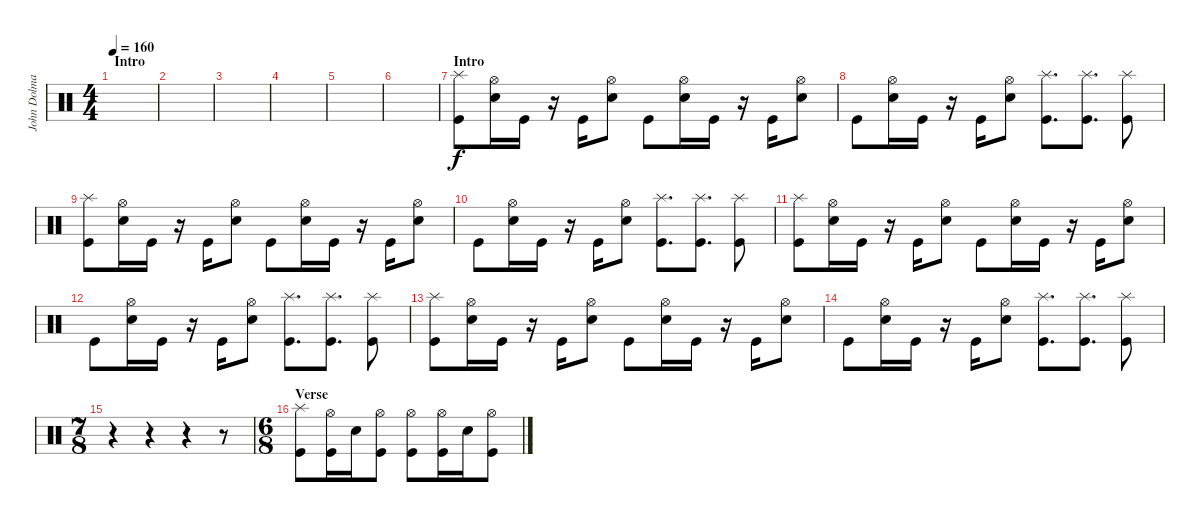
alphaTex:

\track ("John Dolmayan" "John Dolma") {instrument percussion}
\staff {score}
\articulation defaults
\ts (4 4)
\section ("" "Intro")
\tempo 160
\clef neutral
\ks c
|
|
|
|
|
|
\section ("" "Intro")
("Kick (hit)" "Splash (hit)").8 ("Hi-Hat (open)" "Snare (hit) 2").16 "Kick (hit)".16 r.16 "Kick (hit)".16 ("Hi-Hat (open)" "Snare (hit) 2").8 "Kick (hit)".8 ("Hi-Hat (open)" "Snare (hit) 2").16 "Kick (hit)".16 r.16 "Kick (hit)".16 ("Hi-Hat (open)" "Snare (hit) 2").8 |
"Kick (hit)".8 ("Hi-Hat (open)" "Snare (hit) 2").16 "Kick (hit)".16 r.16 "Kick (hit)".16 ("Hi-Hat (open)" "Snare (hit) 2").8 ("Kick (hit)" "Splash (hit)").8{d} ("Kick (hit)" "Splash (hit)").8{d} ("Kick (hit)" "Splash (hit)").8 |
("Kick (hit)" "Splash (hit)").8 ("Hi-Hat (open)" "Snare (hit) 2").16 "Kick (hit)".16 r.16 "Kick (hit)".16 ("Hi-Hat (open)" "Snare (hit) 2").8 "Kick (hit)".8 ("Hi-Hat (open)" "Snare (hit) 2").16 "Kick (hit)".16 r.16 "Kick (hit)".16 ("Hi-Hat (open)" "Snare (hit) 2").8 |
"Kick (hit)".8 ("Hi-Hat (open)" "Snare (hit) 2").16 "Kick (hit)".16 r.16 "Kick (hit)".16 ("Hi-Hat (open)" "Snare (hit) 2").8 ("Kick (hit)" "Splash (hit)").8{d} ("Kick (hit)" "Splash (hit)").8{d} ("Kick (hit)" "Splash (hit)").8 |
("Kick (hit)" "Splash (hit)").8 ("Hi-Hat (open)" "Snare (hit) 2").16 "Kick (hit)".16 r.16 "Kick (hit)".16 ("Hi-Hat (open)" "Snare (hit) 2").8 "Kick (hit)".8 ("Hi-Hat (open)" "Snare (hit) 2").16 "Kick (hit)".16 r.16 "Kick (hit)".16 ("Hi-Hat (open)" "Snare (hit) 2").8 |
"Kick (hit)".8 ("Hi-Hat (open)" "Snare (hit) 2").16 "Kick (hit)".16 r.16 "Kick (hit)".16 ("Hi-Hat (open)" "Snare (hit) 2").8 ("Kick (hit)" "Splash (hit)").8{d} ("Kick (hit)" "Splash (hit)").8{d} ("Kick (hit)" "Splash (hit)").8 |
("Kick (hit)" "Splash (hit)").8 ("Hi-Hat (open)" "Snare (hit) 2").16 "Kick (hit)".16 r.16 "Kick (hit)".16 ("Hi-Hat (open)" "Snare (hit) 2").8 "Kick (hit)".8 ("Hi-Hat (open)" "Snare (hit) 2").16 "Kick (hit)".16 r.16 "Kick (hit)".16 ("Hi-Hat (open)" "Snare (hit) 2").8 |
"Kick (hit)".8 ("Hi-Hat (open)" "Snare (hit) 2").16 "Kick (hit)".16 r.16 "Kick (hit)".16 ("Hi-Hat (open)" "Snare (hit) 2").8 ("Kick (hit)" "Splash (hit)").8{d} ("Kick (hit)" "Splash (hit)").8{d} ("Kick (hit)" "Splash (hit)").8 |
\ts (7 8)
r.4 r.4 r.4 r.8 |
\ts (6 8)
\section ("" "Verse")
("Kick (hit)" "Splash (hit)").8 ("Kick (hit)" "Hi-Hat (open)").16 "Snare (hit) 2".16 ("Kick (hit)" "Hi-Hat (open)").8 ("Kick (hit)" "Hi-Hat (open)").8 ("Kick (hit)" "Hi-Hat (open)").16 "Snare (hit) 2".16 ("Kick (hit)" "Hi-Hat (open)").8
